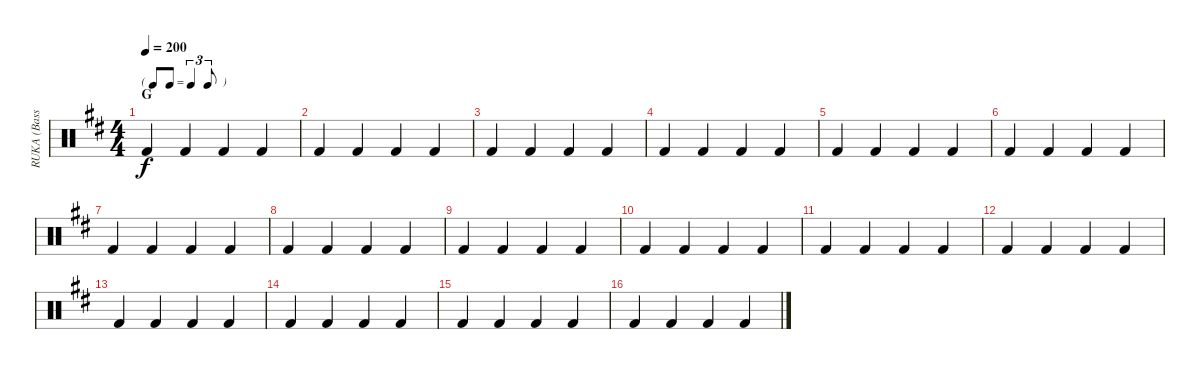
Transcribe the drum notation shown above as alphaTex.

\track ("RUKA (Bass)" "RUKA (Bass") {instrument percussion}
\staff {score}
\articulation defaults
\ts (4 4)
\tf triplet8th
\section ("" "G")
\tempo 200
\clef neutral
\ks d "Kick (hit) 2".4{dy f} "Kick (hit) 2".4 "Kick (hit) 2".4 "Kick (hit) 2".4
|
"Kick (hit) 2".4 "Kick (hit) 2".4 "Kick (hit) 2".4 "Kick (hit) 2".4 |
"Kick (hit) 2".4 "Kick (hit) 2".4 "Kick (hit) 2".4 "Kick (hit) 2".4 |
"Kick (hit) 2".4 "Kick (hit) 2".4 "Kick (hit) 2".4 "Kick (hit) 2".4 |
"Kick (hit) 2".4 "Kick (hit) 2".4 "Kick (hit) 2".4 "Kick (hit) 2".4 |
"Kick (hit) 2".4 "Kick (hit) 2".4 "Kick (hit) 2".4 "Kick (hit) 2".4 |
"Kick (hit) 2".4 "Kick (hit) 2".4 "Kick (hit) 2".4 "Kick (hit) 2".4 |
"Kick (hit) 2".4 "Kick (hit) 2".4 "Kick (hit) 2".4 "Kick (hit) 2".4 |
"Kick (hit) 2".4 "Kick (hit) 2".4 "Kick (hit) 2".4 "Kick (hit) 2".4 |
"Kick (hit) 2".4 "Kick (hit) 2".4 "Kick (hit) 2".4 "Kick (hit) 2".4 |
"Kick (hit) 2".4 "Kick (hit) 2".4 "Kick (hit) 2".4 "Kick (hit) 2".4 |
"Kick (hit) 2".4 "Kick (hit) 2".4 "Kick (hit) 2".4 "Kick (hit) 2".4 |
"Kick (hit) 2".4 "Kick (hit) 2".4 "Kick (hit) 2".4 "Kick (hit) 2".4 |
"Kick (hit) 2".4 "Kick (hit) 2".4 "Kick (hit) 2".4 "Kick (hit) 2".4 |
"Kick (hit) 2".4 "Kick (hit) 2".4 "Kick (hit) 2".4 "Kick (hit) 2".4 |
"Kick (hit) 2".4 "Kick (hit) 2".4 "Kick (hit) 2".4 "Kick (hit) 2".4
